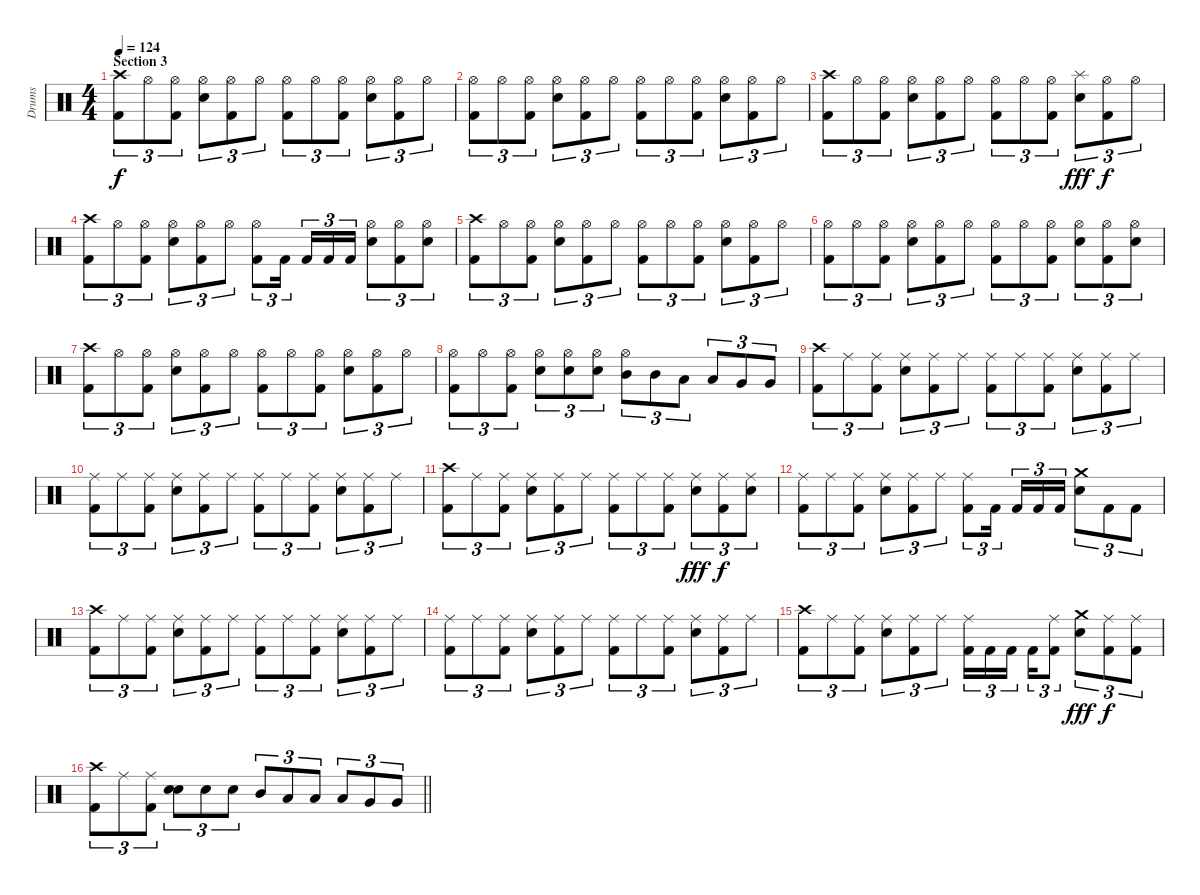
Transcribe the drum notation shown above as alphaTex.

\track ("Drums" "Drums") {instrument percussion}
\staff {score}
\articulation defaults
\ts (4 4)
\section ("" "Section 3")
\tempo 124
\clef neutral
\ks c
("Crash high (hit)" "Kick (hit) 2").8{tu (3 2) dy f} "Hi-Hat (open)".8{tu (3 2)} ("Hi-Hat (open)" "Kick (hit) 2").8{tu (3 2)} ("Hi-Hat (open)" "Electric Snare (hit)").8{tu (3 2)} ("Hi-Hat (open)" "Kick (hit) 2").8{tu (3 2)} "Hi-Hat (open)".8{tu (3 2)} ("Hi-Hat (open)" "Kick (hit) 2").8{tu (3 2)} "Hi-Hat (open)".8{tu (3 2)} ("Hi-Hat (open)" "Kick (hit) 2").8{tu (3 2)} ("Hi-Hat (open)" "Electric Snare (hit)").8{tu (3 2)} ("Hi-Hat (open)" "Kick (hit) 2").8{tu (3 2)} "Hi-Hat (open)".8{tu (3 2)} |
("Hi-Hat (open)" "Kick (hit) 2").8{tu (3 2)} "Hi-Hat (open)".8{tu (3 2)} ("Hi-Hat (open)" "Kick (hit) 2").8{tu (3 2)} ("Hi-Hat (open)" "Electric Snare (hit)").8{tu (3 2)} ("Hi-Hat (open)" "Kick (hit) 2").8{tu (3 2)} "Hi-Hat (open)".8{tu (3 2)} ("Hi-Hat (open)" "Kick (hit) 2").8{tu (3 2)} "Hi-Hat (open)".8{tu (3 2)} ("Hi-Hat (open)" "Kick (hit) 2").8{tu (3 2)} ("Hi-Hat (open)" "Electric Snare (hit)").8{tu (3 2)} ("Hi-Hat (open)" "Kick (hit) 2").8{tu (3 2)} "Hi-Hat (open)".8{tu (3 2)} |
("Crash high (hit)" "Kick (hit) 2").8{tu (3 2)} "Hi-Hat (open)".8{tu (3 2)} ("Hi-Hat (open)" "Kick (hit) 2").8{tu (3 2)} ("Hi-Hat (open)" "Electric Snare (hit)").8{tu (3 2)} ("Hi-Hat (open)" "Kick (hit) 2").8{tu (3 2)} "Hi-Hat (open)".8{tu (3 2)} ("Hi-Hat (open)" "Kick (hit) 2").8{tu (3 2)} "Hi-Hat (open)".8{tu (3 2)} ("Hi-Hat (open)" "Kick (hit) 2").8{tu (3 2)} ("Splash (hit)" "Electric Snare (hit)").8{tu (3 2) dy fff} ("Hi-Hat (open)" "Kick (hit) 2").8{tu (3 2) dy f} "Hi-Hat (open)".8{tu (3 2)} |
("Crash high (hit)" "Kick (hit) 2").8{tu (3 2)} "Hi-Hat (open)".8{tu (3 2)} ("Hi-Hat (open)" "Kick (hit) 2").8{tu (3 2)} ("Hi-Hat (open)" "Electric Snare (hit)").8{tu (3 2)} ("Hi-Hat (open)" "Kick (hit) 2").8{tu (3 2)} "Hi-Hat (open)".8{tu (3 2)} ("Hi-Hat (open)" "Kick (hit) 2").8{tu (3 2)} "Kick (hit) 2".16{tu (3 2) beam splitsecondary} "Kick (hit) 2".16{tu (3 2)} "Kick (hit) 2".16{tu (3 2)} "Kick (hit) 2".16{tu (3 2)} ("Hi-Hat (open)" "Electric Snare (hit)").8{tu (3 2)} ("Hi-Hat (open)" "Kick (hit) 2").8{tu (3 2)} ("Hi-Hat (open)" "Electric Snare (hit)").8{tu (3 2)} |
("Crash high (hit)" "Kick (hit) 2").8{tu (3 2)} "Hi-Hat (open)".8{tu (3 2)} ("Hi-Hat (open)" "Kick (hit) 2").8{tu (3 2)} ("Hi-Hat (open)" "Electric Snare (hit)").8{tu (3 2)} ("Hi-Hat (open)" "Kick (hit) 2").8{tu (3 2)} "Hi-Hat (open)".8{tu (3 2)} ("Hi-Hat (open)" "Kick (hit) 2").8{tu (3 2)} "Hi-Hat (open)".8{tu (3 2)} ("Hi-Hat (open)" "Kick (hit) 2").8{tu (3 2)} ("Hi-Hat (open)" "Electric Snare (hit)").8{tu (3 2)} ("Hi-Hat (open)" "Kick (hit) 2").8{tu (3 2)} "Hi-Hat (open)".8{tu (3 2)} |
("Hi-Hat (open)" "Kick (hit) 2").8{tu (3 2)} "Hi-Hat (open)".8{tu (3 2)} ("Hi-Hat (open)" "Kick (hit) 2").8{tu (3 2)} ("Hi-Hat (open)" "Electric Snare (hit)").8{tu (3 2)} ("Hi-Hat (open)" "Kick (hit) 2").8{tu (3 2)} "Hi-Hat (open)".8{tu (3 2)} ("Hi-Hat (open)" "Kick (hit) 2").8{tu (3 2)} "Hi-Hat (open)".8{tu (3 2)} ("Hi-Hat (open)" "Kick (hit) 2").8{tu (3 2)} ("Hi-Hat (open)" "Electric Snare (hit)").8{tu (3 2)} ("Hi-Hat (open)" "Kick (hit) 2").8{tu (3 2)} ("Hi-Hat (open)" "Electric Snare (hit)").8{tu (3 2)} |
("Crash high (hit)" "Kick (hit) 2").8{tu (3 2)} "Hi-Hat (open)".8{tu (3 2)} ("Hi-Hat (open)" "Kick (hit) 2").8{tu (3 2)} ("Hi-Hat (open)" "Electric Snare (hit)").8{tu (3 2)} ("Hi-Hat (open)" "Kick (hit) 2").8{tu (3 2)} "Hi-Hat (open)".8{tu (3 2)} ("Hi-Hat (open)" "Kick (hit) 2").8{tu (3 2)} "Hi-Hat (open)".8{tu (3 2)} ("Hi-Hat (open)" "Kick (hit) 2").8{tu (3 2)} ("Hi-Hat (open)" "Electric Snare (hit)").8{tu (3 2)} ("Hi-Hat (open)" "Kick (hit) 2").8{tu (3 2)} "Hi-Hat (open)".8{tu (3 2)} |
("Hi-Hat (open)" "Kick (hit) 2").8{tu (3 2)} "Hi-Hat (open)".8{tu (3 2)} ("Hi-Hat (open)" "Kick (hit) 2").8{tu (3 2)} ("Hi-Hat (open)" "Electric Snare (hit)").8{tu (3 2)} ("Hi-Hat (open)" "Electric Snare (hit)").8{tu (3 2)} ("Hi-Hat (open)" "Electric Snare (hit)").8{tu (3 2)} ("Hi-Hat (open)" "Mid Tom (hit)").8{tu (3 2)} "Mid Tom (hit)".8{tu (3 2)} "Low Tom (hit)".8{tu (3 2)} "Low Tom (hit)".8{tu (3 2)} "Very Low Tom (hit)".8{tu (3 2)} "Very Low Tom (hit)".8{tu (3 2)} |
("Crash high (hit)" "Kick (hit) 2").8{tu (3 2)} "Ride (middle)".8{tu (3 2)} ("Ride (middle)" "Kick (hit) 2").8{tu (3 2)} ("Ride (middle)" "Electric Snare (hit)").8{tu (3 2)} ("Ride (middle)" "Kick (hit) 2").8{tu (3 2)} "Ride (middle)".8{tu (3 2)} ("Ride (middle)" "Kick (hit) 2").8{tu (3 2)} "Ride (middle)".8{tu (3 2)} ("Ride (middle)" "Kick (hit) 2").8{tu (3 2)} ("Ride (middle)" "Electric Snare (hit)").8{tu (3 2)} ("Ride (middle)" "Kick (hit) 2").8{tu (3 2)} "Ride (middle)".8{tu (3 2)} |
("Ride (middle)" "Kick (hit) 2").8{tu (3 2)} "Ride (middle)".8{tu (3 2)} ("Ride (middle)" "Kick (hit) 2").8{tu (3 2)} ("Ride (middle)" "Electric Snare (hit)").8{tu (3 2)} ("Ride (middle)" "Kick (hit) 2").8{tu (3 2)} "Ride (middle)".8{tu (3 2)} ("Ride (middle)" "Kick (hit) 2").8{tu (3 2)} "Ride (middle)".8{tu (3 2)} ("Ride (middle)" "Kick (hit) 2").8{tu (3 2)} ("Ride (middle)" "Electric Snare (hit)").8{tu (3 2)} ("Ride (middle)" "Kick (hit) 2").8{tu (3 2)} "Ride (middle)".8{tu (3 2)} |
("Crash high (hit)" "Kick (hit) 2").8{tu (3 2)} "Ride (middle)".8{tu (3 2)} ("Ride (middle)" "Kick (hit) 2").8{tu (3 2)} ("Ride (middle)" "Electric Snare (hit)").8{tu (3 2)} ("Ride (middle)" "Kick (hit) 2").8{tu (3 2)} "Ride (middle)".8{tu (3 2)} ("Ride (middle)" "Kick (hit) 2").8{tu (3 2)} "Ride (middle)".8{tu (3 2)} ("Ride (middle)" "Kick (hit) 2").8{tu (3 2)} ("Ride (middle)" "Electric Snare (hit)").8{tu (3 2) dy fff} ("Ride (middle)" "Kick (hit) 2").8{tu (3 2) dy f} ("Ride (middle)" "Electric Snare (hit)").8{tu (3 2)} |
("Ride (middle)" "Kick (hit) 2").8{tu (3 2)} "Ride (middle)".8{tu (3 2)} ("Ride (middle)" "Kick (hit) 2").8{tu (3 2)} ("Ride (middle)" "Electric Snare (hit)").8{tu (3 2)} ("Ride (middle)" "Kick (hit) 2").8{tu (3 2)} "Ride (middle)".8{tu (3 2)} ("Ride (middle)" "Kick (hit) 2").8{tu (3 2)} "Kick (hit) 2".16{tu (3 2) beam splitsecondary} "Kick (hit) 2".16{tu (3 2)} "Kick (hit) 2".16{tu (3 2)} "Kick (hit) 2".16{tu (3 2)} ("Crash medium (hit)" "Electric Snare (hit)").8{tu (3 2)} "Kick (hit) 2".8{tu (3 2)} "Kick (hit) 2".8{tu (3 2)} |
("Crash high (hit)" "Kick (hit) 2").8{tu (3 2)} "Ride (middle)".8{tu (3 2)} ("Ride (middle)" "Kick (hit) 2").8{tu (3 2)} ("Ride (middle)" "Electric Snare (hit)").8{tu (3 2)} ("Ride (middle)" "Kick (hit) 2").8{tu (3 2)} "Ride (middle)".8{tu (3 2)} ("Ride (middle)" "Kick (hit) 2").8{tu (3 2)} "Ride (middle)".8{tu (3 2)} ("Ride (middle)" "Kick (hit) 2").8{tu (3 2)} ("Ride (middle)" "Electric Snare (hit)").8{tu (3 2)} ("Ride (middle)" "Kick (hit) 2").8{tu (3 2)} "Ride (middle)".8{tu (3 2)} |
("Ride (middle)" "Kick (hit) 2").8{tu (3 2)} "Ride (middle)".8{tu (3 2)} ("Ride (middle)" "Kick (hit) 2").8{tu (3 2)} ("Ride (middle)" "Electric Snare (hit)").8{tu (3 2)} ("Ride (middle)" "Kick (hit) 2").8{tu (3 2)} "Ride (middle)".8{tu (3 2)} ("Ride (middle)" "Kick (hit) 2").8{tu (3 2)} "Ride (middle)".8{tu (3 2)} ("Ride (middle)" "Kick (hit) 2").8{tu (3 2)} ("Ride (middle)" "Electric Snare (hit)").8{tu (3 2)} ("Ride (middle)" "Kick (hit) 2").8{tu (3 2)} "Ride (middle)".8{tu (3 2)} |
("Crash high (hit)" "Kick (hit) 2").8{tu (3 2)} "Ride (middle)".8{tu (3 2)} ("Ride (middle)" "Kick (hit) 2").8{tu (3 2)} ("Ride (middle)" "Electric Snare (hit)").8{tu (3 2)} ("Ride (middle)" "Kick (hit) 2").8{tu (3 2)} "Ride (middle)".8{tu (3 2)} ("Ride (middle)" "Kick (hit) 2").16{tu (3 2)} "Kick (hit) 2".16{tu (3 2)} "Kick (hit) 2".16{tu (3 2) beam splitsecondary} "Kick (hit) 2".16{tu (3 2)} ("Ride (middle)" "Kick (hit) 2").8{tu (3 2)} ("Crash medium (hit)" "Electric Snare (hit)").8{tu (3 2) dy fff} ("Ride (middle)" "Kick (hit) 2").8{tu (3 2) dy f} ("Ride (middle)" "Kick (hit) 2").8{tu (3 2)} |
\barLineRight lightlight
("Crash high (hit)" "Kick (hit) 2").8{tu (3 2)} "Ride (middle)".8{tu (3 2)} ("Ride (middle)" "Kick (hit) 2").8{tu (3 2)} ("Electric Snare (hit)" "Electric Snare (hit)").8{tu (3 2) bu 60} "Electric Snare (hit)".8{tu (3 2)} "Electric Snare (hit)".8{tu (3 2)} "Mid Tom (hit)".8{tu (3 2)} "Low Tom (hit)".8{tu (3 2)} "Low Tom (hit)".8{tu (3 2)} "Low Tom (hit)".8{tu (3 2)} "Very Low Tom (hit)".8{tu (3 2)} "Very Low Tom (hit)".8{tu (3 2)}
